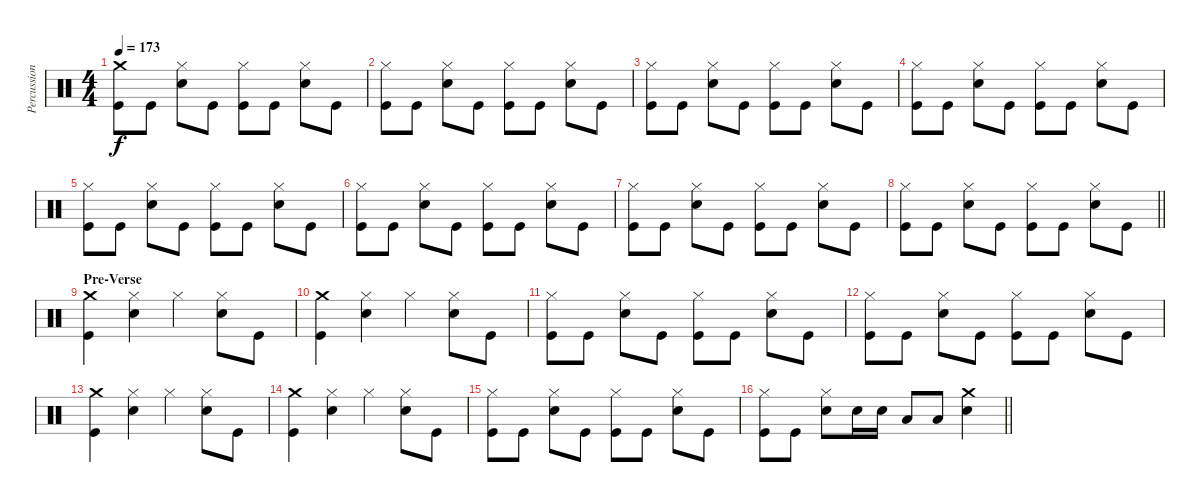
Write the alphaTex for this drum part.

\track ("Percussion" "Percussion") {instrument percussion}
\staff {score}
\articulation defaults
\ts (4 4)
\tempo 173
\clef neutral
\ks c
("Crash medium (hit)" "Kick (hit)").8{dy f} "Kick (hit)".8 ("Hi-Hat (closed)" "Electric Snare (hit)").8 "Kick (hit)".8 ("Hi-Hat (closed)" "Kick (hit)").8 "Kick (hit)".8 ("Hi-Hat (closed)" "Electric Snare (hit)").8 "Kick (hit)".8 |
("Hi-Hat (closed)" "Kick (hit)").8 "Kick (hit)".8 ("Hi-Hat (closed)" "Electric Snare (hit)").8 "Kick (hit)".8 ("Hi-Hat (closed)" "Kick (hit)").8 "Kick (hit)".8 ("Hi-Hat (closed)" "Electric Snare (hit)").8 "Kick (hit)".8 |
("Hi-Hat (closed)" "Kick (hit)").8 "Kick (hit)".8 ("Hi-Hat (closed)" "Electric Snare (hit)").8 "Kick (hit)".8 ("Hi-Hat (closed)" "Kick (hit)").8 "Kick (hit)".8 ("Hi-Hat (closed)" "Electric Snare (hit)").8 "Kick (hit)".8 |
("Hi-Hat (closed)" "Kick (hit)").8 "Kick (hit)".8 ("Hi-Hat (closed)" "Electric Snare (hit)").8 "Kick (hit)".8 ("Hi-Hat (closed)" "Kick (hit)").8 "Kick (hit)".8 ("Hi-Hat (closed)" "Electric Snare (hit)").8 "Kick (hit)".8 |
("Hi-Hat (closed)" "Kick (hit)").8 "Kick (hit)".8 ("Hi-Hat (closed)" "Electric Snare (hit)").8 "Kick (hit)".8 ("Hi-Hat (closed)" "Kick (hit)").8 "Kick (hit)".8 ("Hi-Hat (closed)" "Electric Snare (hit)").8 "Kick (hit)".8 |
("Hi-Hat (closed)" "Kick (hit)").8 "Kick (hit)".8 ("Hi-Hat (closed)" "Electric Snare (hit)").8 "Kick (hit)".8 ("Hi-Hat (closed)" "Kick (hit)").8 "Kick (hit)".8 ("Hi-Hat (closed)" "Electric Snare (hit)").8 "Kick (hit)".8 |
("Hi-Hat (closed)" "Kick (hit)").8 "Kick (hit)".8 ("Hi-Hat (closed)" "Electric Snare (hit)").8 "Kick (hit)".8 ("Hi-Hat (closed)" "Kick (hit)").8 "Kick (hit)".8 ("Hi-Hat (closed)" "Electric Snare (hit)").8 "Kick (hit)".8 |
\barLineRight lightlight
("Hi-Hat (closed)" "Kick (hit)").8 "Kick (hit)".8 ("Hi-Hat (closed)" "Electric Snare (hit)").8 "Kick (hit)".8 ("Hi-Hat (closed)" "Kick (hit)").8 "Kick (hit)".8 ("Hi-Hat (closed)" "Electric Snare (hit)").8 "Kick (hit)".8 |
\section ("" "Pre-Verse")
("Crash medium (hit)" "Kick (hit)").4 ("Hi-Hat (closed)" "Electric Snare (hit)").4 "Hi-Hat (closed)".4 ("Hi-Hat (closed)" "Electric Snare (hit)").8 "Kick (hit)".8 |
("Crash medium (hit)" "Kick (hit)").4 ("Hi-Hat (closed)" "Electric Snare (hit)").4 "Hi-Hat (closed)".4 ("Hi-Hat (closed)" "Electric Snare (hit)").8 "Kick (hit)".8 |
("Hi-Hat (closed)" "Kick (hit)").8 "Kick (hit)".8 ("Hi-Hat (closed)" "Electric Snare (hit)").8 "Kick (hit)".8 ("Hi-Hat (closed)" "Kick (hit)").8 "Kick (hit)".8 ("Hi-Hat (closed)" "Electric Snare (hit)").8 "Kick (hit)".8 |
("Hi-Hat (closed)" "Kick (hit)").8 "Kick (hit)".8 ("Hi-Hat (closed)" "Electric Snare (hit)").8 "Kick (hit)".8 ("Hi-Hat (closed)" "Kick (hit)").8 "Kick (hit)".8 ("Hi-Hat (closed)" "Electric Snare (hit)").8 "Kick (hit)".8 |
("Crash medium (hit)" "Kick (hit)").4 ("Hi-Hat (closed)" "Electric Snare (hit)").4 "Hi-Hat (closed)".4 ("Hi-Hat (closed)" "Electric Snare (hit)").8 "Kick (hit)".8 |
("Crash medium (hit)" "Kick (hit)").4 ("Hi-Hat (closed)" "Electric Snare (hit)").4 "Hi-Hat (closed)".4 ("Hi-Hat (closed)" "Electric Snare (hit)").8 "Kick (hit)".8 |
("Hi-Hat (closed)" "Kick (hit)").8 "Kick (hit)".8 ("Hi-Hat (closed)" "Electric Snare (hit)").8 "Kick (hit)".8 ("Hi-Hat (closed)" "Kick (hit)").8 "Kick (hit)".8 ("Hi-Hat (closed)" "Electric Snare (hit)").8 "Kick (hit)".8 |
\barLineRight lightlight
("Hi-Hat (closed)" "Kick (hit)").8 "Kick (hit)".8 ("Hi-Hat (closed)" "Electric Snare (hit)").8 "Electric Snare (hit)".16 "Electric Snare (hit)".16 "Low Tom (hit)".8 "Low Tom (hit)".8 ("Crash medium (hit)" "Electric Snare (hit)").4
